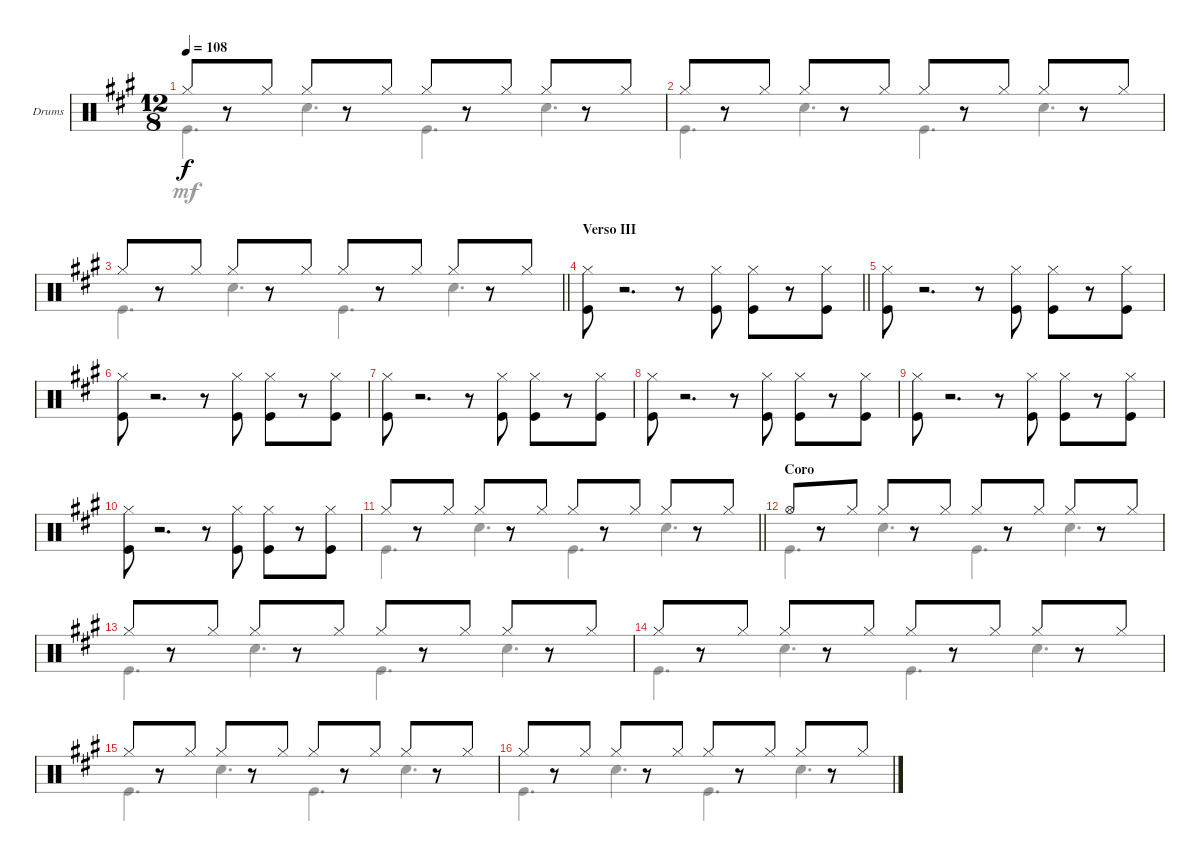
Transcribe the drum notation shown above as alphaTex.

\bracketExtendMode groupsimilarinstruments
\firstSystemTrackNameOrientation horizontal
\otherSystemsTrackNameOrientation horizontal
\track ("Drumkit" "Drums") {instrument percussion}
\staff {score}
\articulation defaults
\voice
\ts (12 8)
\tempo 108
\clef neutral
\ks a "Hi-Hat (closed)".8{dy f}
r.8 "Hi-Hat (closed)".8 "Hi-Hat (closed)".8 r.8 "Hi-Hat (closed)".8 "Hi-Hat (closed)".8 r.8 "Hi-Hat (closed)".8 "Hi-Hat (closed)".8 r.8 "Hi-Hat (closed)".8 |
"Hi-Hat (closed)".8 r.8 "Hi-Hat (closed)".8 "Hi-Hat (closed)".8 r.8 "Hi-Hat (closed)".8 "Hi-Hat (closed)".8 r.8 "Hi-Hat (closed)".8 "Hi-Hat (closed)".8 r.8 "Hi-Hat (closed)".8 |
\barLineRight lightlight "Hi-Hat (closed)".8
r.8 "Hi-Hat (closed)".8 "Hi-Hat (closed)".8 r.8 "Hi-Hat (closed)".8 "Hi-Hat (closed)".8 r.8 "Hi-Hat (closed)".8 "Hi-Hat (closed)".8 r.8 "Hi-Hat (closed)".8 |
\section ("" "Verso III")
\barLineRight lightlight
("Hi-Hat (closed)" "Kick (hit)").8 r.2{d} r.8 ("Hi-Hat (closed)" "Kick (hit)").8 ("Hi-Hat (closed)" "Kick (hit)").8 r.8 ("Hi-Hat (closed)" "Kick (hit)").8 |
\section ("" "")
("Hi-Hat (closed)" "Kick (hit)").8 r.2{d} r.8 ("Hi-Hat (closed)" "Kick (hit)").8 ("Hi-Hat (closed)" "Kick (hit)").8 r.8 ("Hi-Hat (closed)" "Kick (hit)").8 |
("Hi-Hat (closed)" "Kick (hit)").8 r.2{d} r.8 ("Hi-Hat (closed)" "Kick (hit)").8 ("Hi-Hat (closed)" "Kick (hit)").8 r.8 ("Hi-Hat (closed)" "Kick (hit)").8 |
("Hi-Hat (closed)" "Kick (hit)").8 r.2{d} r.8 ("Hi-Hat (closed)" "Kick (hit)").8 ("Hi-Hat (closed)" "Kick (hit)").8 r.8 ("Hi-Hat (closed)" "Kick (hit)").8 |
("Hi-Hat (closed)" "Kick (hit)").8 r.2{d} r.8 ("Hi-Hat (closed)" "Kick (hit)").8 ("Hi-Hat (closed)" "Kick (hit)").8 r.8 ("Hi-Hat (closed)" "Kick (hit)").8 |
("Hi-Hat (closed)" "Kick (hit)").8 r.2{d} r.8 ("Hi-Hat (closed)" "Kick (hit)").8 ("Hi-Hat (closed)" "Kick (hit)").8 r.8 ("Hi-Hat (closed)" "Kick (hit)").8 |
("Hi-Hat (closed)" "Kick (hit)").8 r.2{d} r.8 ("Hi-Hat (closed)" "Kick (hit)").8 ("Hi-Hat (closed)" "Kick (hit)").8 r.8 ("Hi-Hat (closed)" "Kick (hit)").8 |
\barLineRight lightlight "Hi-Hat (closed)".8
r.8 "Hi-Hat (closed)".8 "Hi-Hat (closed)".8 r.8 "Hi-Hat (closed)".8 "Hi-Hat (closed)".8 r.8 "Hi-Hat (closed)".8 "Hi-Hat (closed)".8 r.8 "Hi-Hat (closed)".8 |
\section ("" "Coro")
"Hi-Hat (open)".8 r.8 "Hi-Hat (closed)".8 "Hi-Hat (closed)".8 r.8 "Hi-Hat (closed)".8 "Hi-Hat (closed)".8 r.8 "Hi-Hat (closed)".8 "Hi-Hat (closed)".8 r.8 "Hi-Hat (closed)".8 |
"Hi-Hat (closed)".8 r.8 "Hi-Hat (closed)".8 "Hi-Hat (closed)".8 r.8 "Hi-Hat (closed)".8 "Hi-Hat (closed)".8 r.8 "Hi-Hat (closed)".8 "Hi-Hat (closed)".8 r.8 "Hi-Hat (closed)".8 |
"Hi-Hat (closed)".8 r.8 "Hi-Hat (closed)".8 "Hi-Hat (closed)".8 r.8 "Hi-Hat (closed)".8 "Hi-Hat (closed)".8 r.8 "Hi-Hat (closed)".8 "Hi-Hat (closed)".8 r.8 "Hi-Hat (closed)".8 |
"Hi-Hat (closed)".8 r.8 "Hi-Hat (closed)".8 "Hi-Hat (closed)".8 r.8 "Hi-Hat (closed)".8 "Hi-Hat (closed)".8 r.8 "Hi-Hat (closed)".8 "Hi-Hat (closed)".8 r.8 "Hi-Hat (closed)".8 |
"Hi-Hat (closed)".8 r.8 "Hi-Hat (closed)".8 "Hi-Hat (closed)".8 r.8 "Hi-Hat (closed)".8 "Hi-Hat (closed)".8 r.8 "Hi-Hat (closed)".8 "Hi-Hat (closed)".8 r.8 "Hi-Hat (closed)".8
\voice
\clef neutral
\ottava regular
\simile none
\ks a "Kick (hit)".4{d dy mf} "Snare (hit) 2".4{d} "Kick (hit)".4{d} "Snare (hit) 2".4{d}
|
"Kick (hit)".4{d} "Snare (hit) 2".4{d} "Kick (hit)".4{d} "Snare (hit) 2".4{d} |
\barLineRight lightlight "Kick (hit)".4{d} "Snare (hit) 2".4{d} "Kick (hit)".4{d} "Snare (hit) 2".4{d}
|
\barLineRight lightlight
|
|
|
|
|
|
|
\barLineRight lightlight "Kick (hit)".4{d} "Snare (hit) 2".4{d} "Kick (hit)".4{d} "Snare (hit) 2".4{d}
|
"Kick (hit)".4{d} "Snare (hit) 2".4{d} "Kick (hit)".4{d} "Snare (hit) 2".4{d} |
"Kick (hit)".4{d} "Snare (hit) 2".4{d} "Kick (hit)".4{d} "Snare (hit) 2".4{d} |
"Kick (hit)".4{d} "Snare (hit) 2".4{d} "Kick (hit)".4{d} "Snare (hit) 2".4{d} |
"Kick (hit)".4{d} "Snare (hit) 2".4{d} "Kick (hit)".4{d} "Snare (hit) 2".4{d} |
"Kick (hit)".4{d} "Snare (hit) 2".4{d} "Kick (hit)".4{d} "Snare (hit) 2".4{d}
